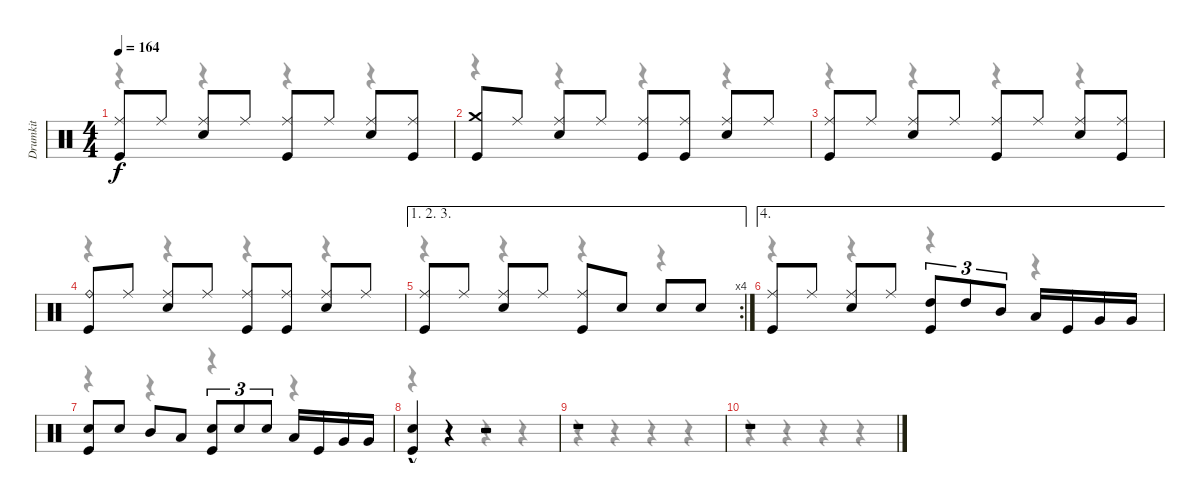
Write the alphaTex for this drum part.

\track ("Drumkit" "Drumkit") {instrument percussion}
\staff {score}
\articulation defaults
\voice
\ts (4 4)
\tempo 164
\clef neutral
\ks c
("Ride (middle)" "Kick (hit)").8{dy f} "Ride (middle)".8 ("Ride (middle)" "Snare (hit) 2").8 "Ride (middle)".8 ("Ride (middle)" "Kick (hit)").8 "Ride (middle)".8 ("Ride (middle)" "Snare (hit) 2").8 ("Ride (middle)" "Kick (hit)").8 |
("Crash medium (hit)" "Kick (hit)").8 "Ride (middle)".8 ("Ride (middle)" "Snare (hit) 2").8 "Ride (middle)".8 ("Ride (middle)" "Kick (hit)").8 ("Ride (middle)" "Kick (hit)").8 ("Ride (middle)" "Snare (hit) 2").8 "Ride (middle)".8 |
("Ride (middle)" "Kick (hit)").8 "Ride (middle)".8 ("Ride (middle)" "Snare (hit) 2").8 "Ride (middle)".8 ("Ride (middle)" "Kick (hit)").8 "Ride (middle)".8 ("Ride (middle)" "Snare (hit) 2").8 ("Ride (middle)" "Kick (hit)").8 |
("Ride (bell)" "Kick (hit)").8 "Ride (middle)".8 ("Ride (middle)" "Snare (hit) 2").8 "Ride (middle)".8 ("Ride (middle)" "Kick (hit)").8 ("Ride (middle)" "Kick (hit)").8 ("Ride (middle)" "Snare (hit) 2").8 "Ride (middle)".8 |
\ae (1 2 3)
\rc 4
("Ride (middle)" "Kick (hit)").8 "Ride (middle)".8 ("Ride (middle)" "Snare (hit) 2").8 "Ride (middle)".8 ("Ride (middle)" "Kick (hit)").8 "Snare (hit) 2".8 "Snare (hit) 2".8 "Snare (hit) 2".8 |
\ae 4
("Ride (middle)" "Kick (hit)").8 "Ride (middle)".8 ("Ride (middle)" "Snare (hit) 2").8 "Ride (middle)".8 ("High Tom (hit)" "Kick (hit)").8{tu (3 2)} "High Tom (hit)".8{tu (3 2)} "Mid Tom (hit)".8{tu (3 2)} "Low Tom (hit)".16 "Kick (hit)".16 "Very Low Tom (hit)".16 "Very Low Tom (hit)".16 |
("Snare (hit) 2" "Kick (hit)").8 "Snare (hit) 2".8 "Mid Tom (hit)".8 "Low Tom (hit)".8 ("Snare (hit) 2" "Kick (hit)").8{tu (3 2)} "Snare (hit) 2".8{tu (3 2)} "Snare (hit) 2".8{tu (3 2)} "Low Tom (hit)".16 "Kick (hit)".16 "Very Low Tom (hit)".16 "Very Low Tom (hit)".16 |
("Snare (hit) 2"{hac} "Kick (hit)"{hac}).4 r.4 r.2 |
r.1 |
r.1
\voice
\clef neutral
\ottava regular
\simile none
\ks c
r.4{dy f} r.4 r.4 r.4 |
r.4 r.4 r.4 r.4 |
r.4 r.4 r.4 r.4 |
r.4 r.4 r.4 r.4 |
r.4 r.4 r.4 r.4 |
r.4 r.4 r.4 r.4 |
r.4 r.4 r.4 r.4 |
r.4 r.4 r.4 r.4 |
r.4 r.4 r.4 r.4 |
r.4 r.4 r.4 r.4
